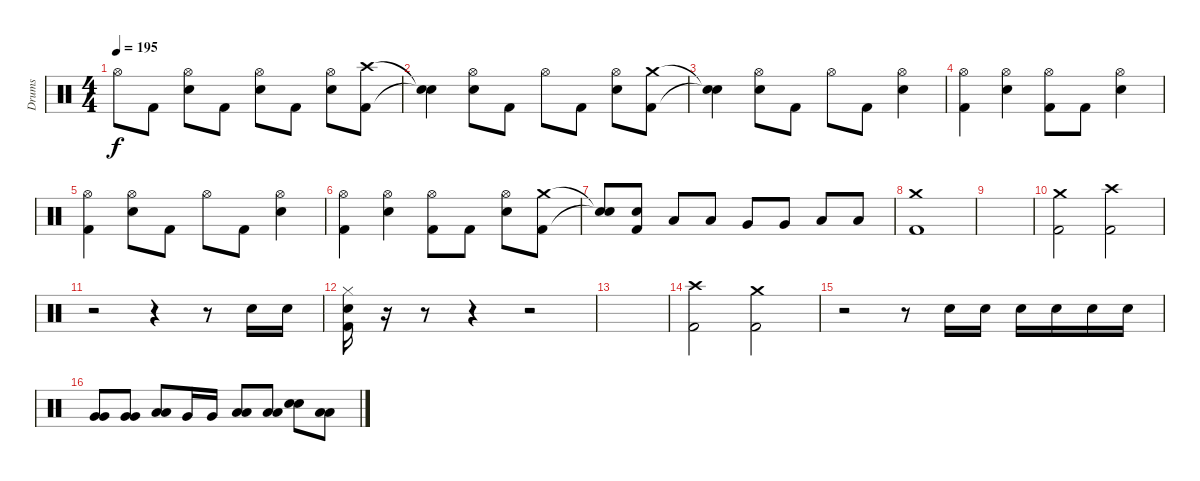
\track ("Drums" "Drums") {instrument percussion}
\staff {score}
\articulation defaults
\ts (4 4)
\tempo 195
\clef neutral
\ks c "Hi-Hat (open)".8{dy f} "Kick (hit) 2".8
("Hi-Hat (open)" "Electric Snare (hit)").8 "Kick (hit) 2".8 ("Hi-Hat (open)" "Electric Snare (hit)").8 "Kick (hit) 2".8 ("Hi-Hat (open)" "Electric Snare (hit)").8 ("Crash high (hit)" "Kick (hit) 2").8 |
\section ("" "")
("Snare (hit)"{t} "Snare (hit)"{t}).4 ("Hi-Hat (open)" "Electric Snare (hit)").8 "Kick (hit) 2".8 "Hi-Hat (open)".8 "Kick (hit) 2".8 ("Hi-Hat (open)" "Electric Snare (hit)").8 ("Crash medium (hit)" "Kick (hit) 2").8 |
("Snare (hit)"{t} "Snare (hit)"{t}).4 ("Hi-Hat (open)" "Electric Snare (hit)").8 "Kick (hit) 2".8 "Hi-Hat (open)".8 "Kick (hit) 2".8 ("Hi-Hat (open)" "Electric Snare (hit)").4 |
("Hi-Hat (open)" "Kick (hit) 2").4 ("Hi-Hat (open)" "Electric Snare (hit)").4 ("Hi-Hat (open)" "Kick (hit) 2").8 "Kick (hit) 2".8 ("Hi-Hat (open)" "Electric Snare (hit)").4 |
("Hi-Hat (open)" "Kick (hit) 2").4 ("Hi-Hat (open)" "Electric Snare (hit)").8 "Kick (hit) 2".8 "Hi-Hat (open)".8 "Kick (hit) 2".8 ("Hi-Hat (open)" "Electric Snare (hit)").4 |
("Hi-Hat (open)" "Kick (hit) 2").4 ("Hi-Hat (open)" "Electric Snare (hit)").4 ("Hi-Hat (open)" "Kick (hit) 2").8 "Kick (hit) 2".8 ("Hi-Hat (open)" "Electric Snare (hit)").8 ("Crash medium (hit)" "Kick (hit) 2").8 |
("Snare (hit)"{t} "Snare (hit)"{t}).8 ("Electric Snare (hit)" "Kick (hit) 2").8 "Low Tom (hit)".8 "Low Tom (hit)".8 "Very Low Tom (hit)".8 "Very Low Tom (hit)".8 "Low Floor Tom (hit)".8 "Low Floor Tom (hit)".8 |
\section ("" "")
("Crash medium (hit)" "Kick (hit) 2").1 |
|
("Crash medium (hit)" "Kick (hit) 2").2 ("Crash high (hit)" "Kick (hit) 2").2 |
r.2 r.4 r.8 "Electric Snare (hit)".16 "Electric Snare (hit)".16 |
("Hi-Hat (closed)" "Electric Snare (hit)" "Kick (hit) 2").16 r.16 r.8 r.4 r.2 |
|
("Crash high (hit)" "Kick (hit) 2").2 ("Crash medium (hit)" "Kick (hit) 2").2 |
r.2 r.8 "Electric Snare (hit)".16 "Electric Snare (hit)".16 "Electric Snare (hit)".16 "Electric Snare (hit)".16 "Electric Snare (hit)".16 "Electric Snare (hit)".16 |
\section ("" "")
("Very Low Tom (hit)" "Very Low Tom (hit)").8 ("Very Low Tom (hit)" "Very Low Tom (hit)").8 ("Low Tom (hit)" "Low Tom (hit)").8 "Very Low Tom (hit)".16 "Very Low Tom (hit)".16 ("Low Tom (hit)" "Low Tom (hit)").8 ("Low Tom (hit)" "Low Tom (hit)").8 ("Electric Snare (hit)" "Electric Snare (hit)").8 ("Low Tom (hit)" "Low Tom (hit)").8
